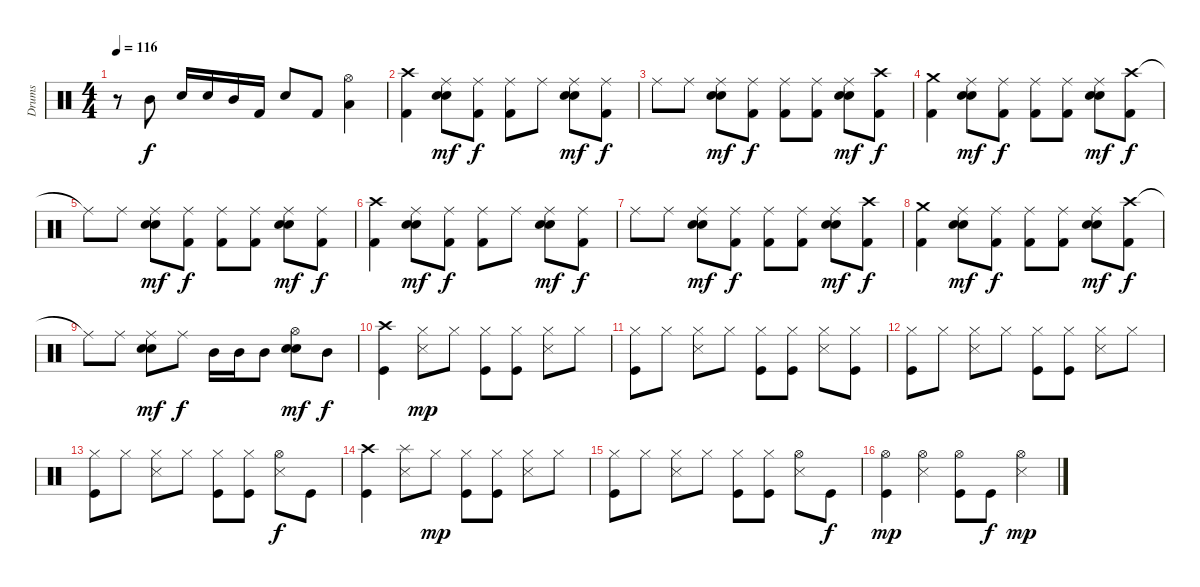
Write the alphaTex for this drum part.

\track ("Drums" "Drums") {instrument percussion}
\staff {score}
\articulation defaults
\ts (4 4)
\tempo 116
\clef neutral
\ks c
r.8{dy f} "Mid Tom (hit)".8 "Electric Snare (hit)".16 "Electric Snare (hit)".16 "Mid Tom (hit)".16 "Kick (hit) 2".16 "Electric Snare (hit)".8 "Kick (hit) 2".8 ("Hi-Hat (open)" "Low Tom (hit)").4 |
("Crash high (hit)" "Kick (hit) 2").4 ("Ride (middle)" "Electric Snare (hit)" "Hand Clap (hit)").8{dy mf} ("Ride (middle)" "Kick (hit) 2").8{dy f} ("Ride (middle)" "Kick (hit) 2").8 "Ride (middle)".8 ("Ride (middle)" "Electric Snare (hit)" "Hand Clap (hit)").8{dy mf} ("Ride (middle)" "Kick (hit) 2").8{dy f} |
"Ride (middle)".8 "Ride (middle)".8 ("Ride (middle)" "Electric Snare (hit)" "Hand Clap (hit)").8{dy mf} ("Ride (middle)" "Kick (hit) 2").8{dy f} ("Ride (middle)" "Kick (hit) 2").8 ("Ride (middle)" "Kick (hit) 2").8 ("Ride (middle)" "Electric Snare (hit)" "Hand Clap (hit)").8{dy mf} ("Crash high (hit)" "Kick (hit) 2").8{dy f} |
("Crash medium (hit)" "Kick (hit) 2").4 ("Ride (middle)" "Electric Snare (hit)" "Hand Clap (hit)").8{dy mf} ("Ride (middle)" "Kick (hit) 2").8{dy f} ("Ride (middle)" "Kick (hit) 2").8 ("Ride (middle)" "Kick (hit) 2").8 ("Ride (middle)" "Electric Snare (hit)" "Hand Clap (hit)").8{dy mf} ("Crash high (hit)" "Kick (hit) 2").8{dy f} |
"Ride (middle)"{t}.8 "Ride (middle)".8 ("Ride (middle)" "Electric Snare (hit)" "Hand Clap (hit)").8{dy mf} ("Ride (middle)" "Kick (hit) 2").8{dy f} ("Ride (middle)" "Kick (hit) 2").8 ("Ride (middle)" "Kick (hit) 2").8 ("Ride (middle)" "Electric Snare (hit)" "Hand Clap (hit)").8{dy mf} ("Ride (middle)" "Kick (hit) 2").8{dy f} |
("Crash high (hit)" "Kick (hit) 2").4 ("Ride (middle)" "Electric Snare (hit)" "Hand Clap (hit)").8{dy mf} ("Ride (middle)" "Kick (hit) 2").8{dy f} ("Ride (middle)" "Kick (hit) 2").8 "Ride (middle)".8 ("Ride (middle)" "Electric Snare (hit)" "Hand Clap (hit)").8{dy mf} ("Ride (middle)" "Kick (hit) 2").8{dy f} |
"Ride (middle)".8 "Ride (middle)".8 ("Ride (middle)" "Electric Snare (hit)" "Hand Clap (hit)").8{dy mf} ("Ride (middle)" "Kick (hit) 2").8{dy f} ("Ride (middle)" "Kick (hit) 2").8 ("Ride (middle)" "Kick (hit) 2").8 ("Ride (middle)" "Electric Snare (hit)" "Hand Clap (hit)").8{dy mf} ("Crash high (hit)" "Kick (hit) 2").8{dy f} |
("Crash medium (hit)" "Kick (hit) 2").4 ("Ride (middle)" "Electric Snare (hit)" "Hand Clap (hit)").8{dy mf} ("Ride (middle)" "Kick (hit) 2").8{dy f} ("Ride (middle)" "Kick (hit) 2").8 ("Ride (middle)" "Kick (hit) 2").8 ("Ride (middle)" "Electric Snare (hit)" "Hand Clap (hit)").8{dy mf} ("Crash high (hit)" "Kick (hit) 2").8{dy f} |
"Ride (middle)"{t}.8 "Ride (middle)".8 ("Ride (middle)" "Electric Snare (hit)" "Hand Clap (hit)").8{dy mf} "Ride (middle)".8{dy f} "Mid Tom (hit)".16 "Mid Tom (hit)".16 "Mid Tom (hit)".8 ("Hi-Hat (open)" "Electric Snare (hit)" "Hand Clap (hit)").8{dy mf} "Mid Tom (hit)".8{dy f} |
("Crash high (hit)" "Kick (hit)").4 ("Hi-Hat (closed)" "Snare (side stick) 3").8{dy mp} "Hi-Hat (closed)".8 ("Hi-Hat (closed)" "Kick (hit)").8 ("Hi-Hat (closed)" "Kick (hit)").8 ("Hi-Hat (closed)" "Snare (side stick) 3").8 "Hi-Hat (closed)".8 |
("Hi-Hat (closed)" "Kick (hit)").8 "Hi-Hat (closed)".8 ("Hi-Hat (closed)" "Snare (side stick) 3").8 "Hi-Hat (closed)".8 ("Hi-Hat (closed)" "Kick (hit)").8 ("Hi-Hat (closed)" "Kick (hit)").8 ("Hi-Hat (closed)" "Snare (side stick) 3").8 ("Hi-Hat (closed)" "Kick (hit)").8 |
("Hi-Hat (closed)" "Kick (hit)").8 "Hi-Hat (closed)".8 ("Hi-Hat (closed)" "Snare (side stick) 3").8 "Hi-Hat (closed)".8 ("Hi-Hat (closed)" "Kick (hit)").8 ("Hi-Hat (closed)" "Kick (hit)").8 ("Hi-Hat (closed)" "Snare (side stick) 3").8 "Hi-Hat (closed)".8 |
("Hi-Hat (closed)" "Kick (hit)").8 "Hi-Hat (closed)".8 ("Hi-Hat (closed)" "Snare (side stick) 3").8 "Hi-Hat (closed)".8 ("Hi-Hat (closed)" "Kick (hit)").8 ("Hi-Hat (closed)" "Kick (hit)").8 ("Hi-Hat (open)" "Snare (side stick) 3").8{dy f} "Kick (hit)".8 |
("Crash high (hit)" "Kick (hit)").4 ("Splash (hit)" "Snare (side stick) 3").8 "Hi-Hat (closed)".8{dy mp} ("Hi-Hat (closed)" "Kick (hit)").8 ("Hi-Hat (closed)" "Kick (hit)").8 ("Hi-Hat (closed)" "Snare (side stick) 3").8 "Hi-Hat (closed)".8 |
("Hi-Hat (closed)" "Kick (hit)").8 "Hi-Hat (closed)".8 ("Hi-Hat (closed)" "Snare (side stick) 3").8 "Hi-Hat (closed)".8 ("Hi-Hat (closed)" "Kick (hit)").8 ("Hi-Hat (closed)" "Kick (hit)").8 ("Hi-Hat (open)" "Snare (side stick) 3").8 "Kick (hit)".8{dy f} |
("Hi-Hat (open)" "Kick (hit)").4{dy mp} ("Hi-Hat (open)" "Snare (side stick) 3").4 ("Hi-Hat (open)" "Kick (hit)").8 "Kick (hit)".8{dy f} ("Hi-Hat (open)" "Snare (side stick) 3").4{dy mp}
